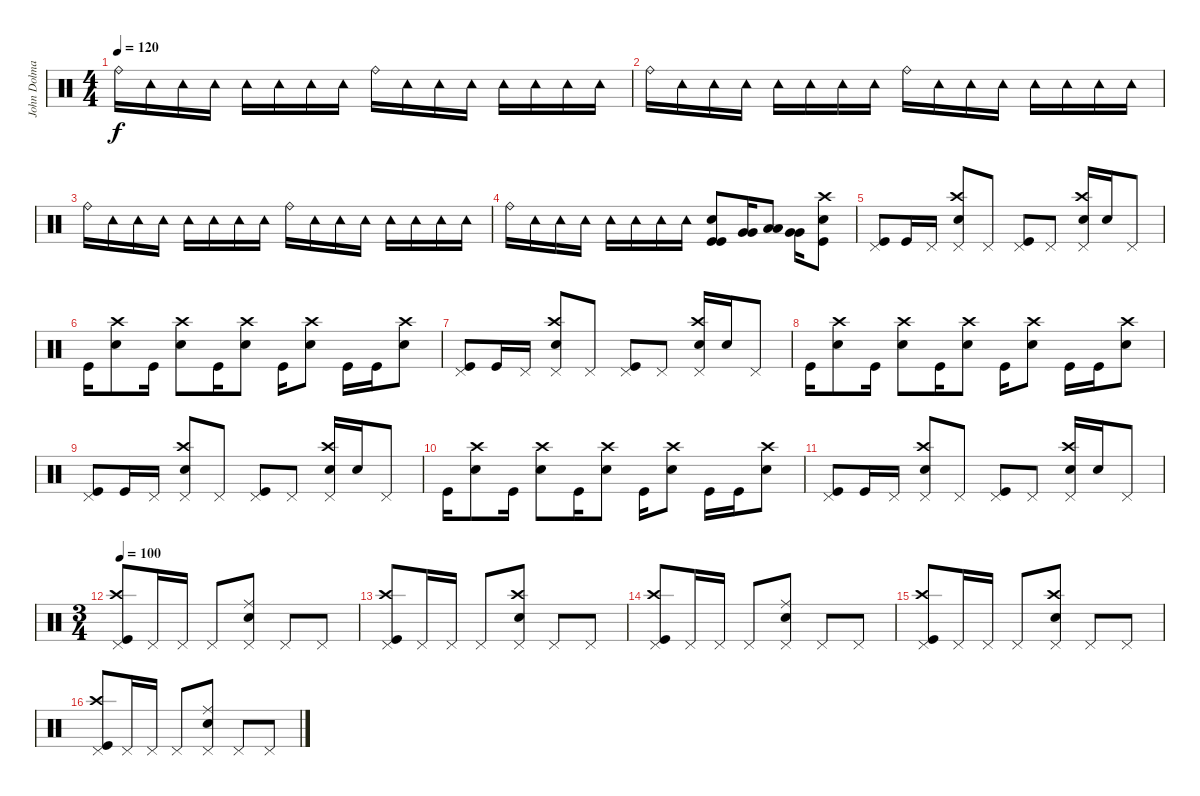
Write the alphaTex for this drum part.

\track ("John Dolmayan" "John Dolma") {instrument percussion}
\staff {score}
\articulation defaults
\ts (4 4)
\tempo 120
\clef neutral
\ks c "Ride (bell)".16{dy f} "Tambourine (hit)".16 "Tambourine (hit)".16 "Tambourine (hit)".16 "Tambourine (hit)".16 "Tambourine (hit)".16 "Tambourine (hit)".16 "Tambourine (hit)".16 "Ride (bell)".16 "Tambourine (hit)".16 "Tambourine (hit)".16 "Tambourine (hit)".16 "Tambourine (hit)".16 "Tambourine (hit)".16 "Tambourine (hit)".16 "Tambourine (hit)".16
|
"Ride (bell)".16 "Tambourine (hit)".16 "Tambourine (hit)".16 "Tambourine (hit)".16 "Tambourine (hit)".16 "Tambourine (hit)".16 "Tambourine (hit)".16 "Tambourine (hit)".16 "Ride (bell)".16 "Tambourine (hit)".16 "Tambourine (hit)".16 "Tambourine (hit)".16 "Tambourine (hit)".16 "Tambourine (hit)".16 "Tambourine (hit)".16 "Tambourine (hit)".16 |
"Ride (bell)".16 "Tambourine (hit)".16 "Tambourine (hit)".16 "Tambourine (hit)".16 "Tambourine (hit)".16 "Tambourine (hit)".16 "Tambourine (hit)".16 "Tambourine (hit)".16 "Ride (bell)".16 "Tambourine (hit)".16 "Tambourine (hit)".16 "Tambourine (hit)".16 "Tambourine (hit)".16 "Tambourine (hit)".16 "Tambourine (hit)".16 "Tambourine (hit)".16 |
"Ride (bell)".16 "Tambourine (hit)".16 "Tambourine (hit)".16 "Tambourine (hit)".16 "Tambourine (hit)".16 "Tambourine (hit)".16 "Tambourine (hit)".16 "Tambourine (hit)".16 ("Electric Snare (hit)" "Kick (hit)" "Kick (hit)").8 ("Very Low Tom (hit)" "Very Low Tom (hit)").16 ("Low Floor Tom (hit)" "Low Floor Tom (hit)").8 ("Very Low Tom (hit)" "Very Low Tom (hit)").16 ("Crash high (hit)" "Electric Snare (hit)" "Kick (hit)").8 |
("Pedal Hi-Hat (hit)" "Kick (hit)").8 "Kick (hit)".16 "Pedal Hi-Hat (hit)".16 ("Crash high (hit)" "Pedal Hi-Hat (hit)" "Electric Snare (hit)").8 "Pedal Hi-Hat (hit)".8 ("Pedal Hi-Hat (hit)" "Kick (hit)").8 "Pedal Hi-Hat (hit)".8 ("Crash high (hit)" "Pedal Hi-Hat (hit)" "Electric Snare (hit)").16 "Electric Snare (hit)".16 "Pedal Hi-Hat (hit)".8 |
"Kick (hit)".16 ("Crash high (hit)" "Electric Snare (hit)").8 "Kick (hit)".16 ("Crash high (hit)" "Electric Snare (hit)").8 "Kick (hit)".16 ("Crash high (hit)" "Electric Snare (hit)").8 "Kick (hit)".16 ("Crash high (hit)" "Electric Snare (hit)").8 "Kick (hit)".16 "Kick (hit)".16 ("Crash high (hit)" "Electric Snare (hit)").8 |
("Pedal Hi-Hat (hit)" "Kick (hit)").8 "Kick (hit)".16 "Pedal Hi-Hat (hit)".16 ("Crash high (hit)" "Pedal Hi-Hat (hit)" "Electric Snare (hit)").8 "Pedal Hi-Hat (hit)".8 ("Pedal Hi-Hat (hit)" "Kick (hit)").8 "Pedal Hi-Hat (hit)".8 ("Crash high (hit)" "Pedal Hi-Hat (hit)" "Electric Snare (hit)").16 "Electric Snare (hit)".16 "Pedal Hi-Hat (hit)".8 |
"Kick (hit)".16 ("Crash high (hit)" "Electric Snare (hit)").8 "Kick (hit)".16 ("Crash high (hit)" "Electric Snare (hit)").8 "Kick (hit)".16 ("Crash high (hit)" "Electric Snare (hit)").8 "Kick (hit)".16 ("Crash high (hit)" "Electric Snare (hit)").8 "Kick (hit)".16 "Kick (hit)".16 ("Crash high (hit)" "Electric Snare (hit)").8 |
("Pedal Hi-Hat (hit)" "Kick (hit)").8 "Kick (hit)".16 "Pedal Hi-Hat (hit)".16 ("Crash high (hit)" "Pedal Hi-Hat (hit)" "Electric Snare (hit)").8 "Pedal Hi-Hat (hit)".8 ("Pedal Hi-Hat (hit)" "Kick (hit)").8 "Pedal Hi-Hat (hit)".8 ("Crash high (hit)" "Pedal Hi-Hat (hit)" "Electric Snare (hit)").16 "Electric Snare (hit)".16 "Pedal Hi-Hat (hit)".8 |
"Kick (hit)".16 ("Crash high (hit)" "Electric Snare (hit)").8 "Kick (hit)".16 ("Crash high (hit)" "Electric Snare (hit)").8 "Kick (hit)".16 ("Crash high (hit)" "Electric Snare (hit)").8 "Kick (hit)".16 ("Crash high (hit)" "Electric Snare (hit)").8 "Kick (hit)".16 "Kick (hit)".16 ("Crash high (hit)" "Electric Snare (hit)").8 |
("Pedal Hi-Hat (hit)" "Kick (hit)").8 "Kick (hit)".16 "Pedal Hi-Hat (hit)".16 ("Crash high (hit)" "Pedal Hi-Hat (hit)" "Electric Snare (hit)").8 "Pedal Hi-Hat (hit)".8 ("Pedal Hi-Hat (hit)" "Kick (hit)").8 "Pedal Hi-Hat (hit)".8 ("Crash high (hit)" "Pedal Hi-Hat (hit)" "Electric Snare (hit)").16 "Electric Snare (hit)".16 "Pedal Hi-Hat (hit)".8 |
\ts (3 4)
\tempo 100
("Pedal Hi-Hat (hit)" "Crash high (hit)" "Kick (hit)").8 "Pedal Hi-Hat (hit)".16 "Pedal Hi-Hat (hit)".16 "Pedal Hi-Hat (hit)".8 ("Pedal Hi-Hat (hit)" "Electric Snare (hit)" "Ride (middle)").8 "Pedal Hi-Hat (hit)".8 "Pedal Hi-Hat (hit)".8 |
("Pedal Hi-Hat (hit)" "Crash high (hit)" "Kick (hit)").8 "Pedal Hi-Hat (hit)".16 "Pedal Hi-Hat (hit)".16 "Pedal Hi-Hat (hit)".8 ("Pedal Hi-Hat (hit)" "Electric Snare (hit)" "Crash high (hit)").8 "Pedal Hi-Hat (hit)".8 "Pedal Hi-Hat (hit)".8 |
("Pedal Hi-Hat (hit)" "Crash high (hit)" "Kick (hit)").8 "Pedal Hi-Hat (hit)".16 "Pedal Hi-Hat (hit)".16 "Pedal Hi-Hat (hit)".8 ("Pedal Hi-Hat (hit)" "Electric Snare (hit)" "Ride (middle)").8 "Pedal Hi-Hat (hit)".8 "Pedal Hi-Hat (hit)".8 |
("Pedal Hi-Hat (hit)" "Crash high (hit)" "Kick (hit)").8 "Pedal Hi-Hat (hit)".16 "Pedal Hi-Hat (hit)".16 "Pedal Hi-Hat (hit)".8 ("Pedal Hi-Hat (hit)" "Electric Snare (hit)" "Crash high (hit)").8 "Pedal Hi-Hat (hit)".8 "Pedal Hi-Hat (hit)".8 |
("Pedal Hi-Hat (hit)" "Crash high (hit)" "Kick (hit)").8 "Pedal Hi-Hat (hit)".16 "Pedal Hi-Hat (hit)".16 "Pedal Hi-Hat (hit)".8 ("Pedal Hi-Hat (hit)" "Electric Snare (hit)" "Ride (middle)").8 "Pedal Hi-Hat (hit)".8 "Pedal Hi-Hat (hit)".8
